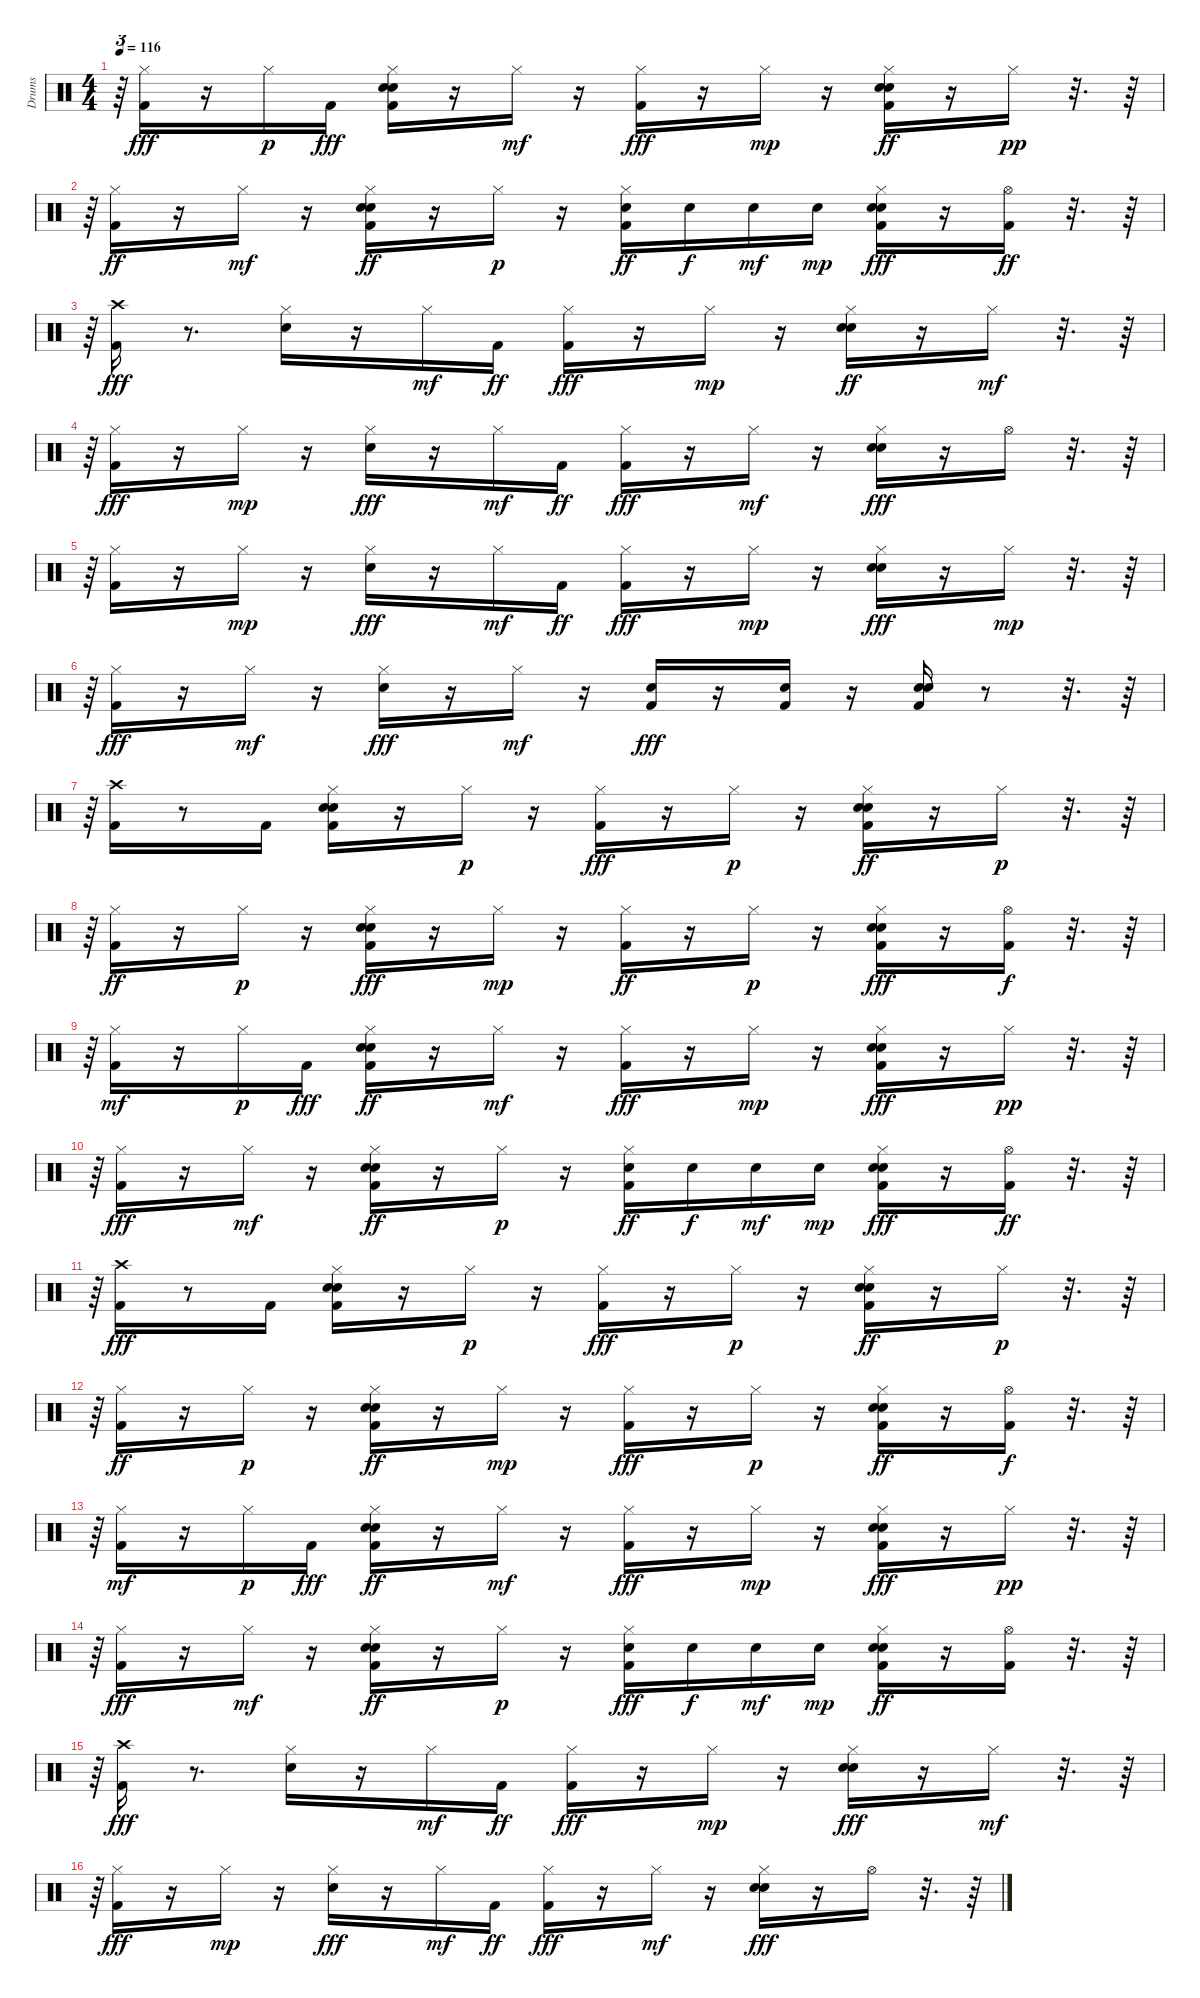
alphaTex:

\track ("Drums" "Drums") {instrument percussion}
\staff {score}
\articulation defaults
\ts (4 4)
\tempo 116
\clef neutral
\ks c
r.64{tu (3 2) dy f} ("Hi-Hat (closed)" "Kick (hit) 2").16{dy fff} r.16 "Hi-Hat (closed)".16{dy p} "Kick (hit) 2".16{dy fff} ("Hi-Hat (closed)" "Snare (hit) 2" "Kick (hit) 2" "Hand Clap (hit)").16 r.16 "Hi-Hat (closed)".16{dy mf} r.16 ("Hi-Hat (closed)" "Kick (hit) 2").16{dy fff} r.16 "Hi-Hat (closed)".16{dy mp} r.16 ("Snare (hit) 2" "Kick (hit) 2" "Hand Clap (hit)" "Hi-Hat (closed)").16{dy ff} r.16 "Hi-Hat (closed)".16{dy pp} r.32{d} r.64 |
r.64{tu (3 2)} ("Kick (hit) 2" "Hi-Hat (closed)").16{dy ff} r.16 "Hi-Hat (closed)".16{dy mf} r.16 ("Kick (hit) 2" "Hi-Hat (closed)" "Hand Clap (hit)" "Snare (hit) 2").16{dy ff} r.16 "Hi-Hat (closed)".16{dy p} r.16 ("Snare (hit) 2" "Kick (hit) 2" "Hi-Hat (closed)").16{dy ff} "Snare (hit) 2".16{dy f} "Snare (hit) 2".16{dy mf} "Snare (hit) 2".16{dy mp} ("Snare (hit) 2" "Hi-Hat (closed)" "Hand Clap (hit)" "Kick (hit) 2").16{dy fff} r.16 ("Kick (hit) 2" "Hi-Hat (open)").16{dy ff} r.32{d} r.64 |
r.64{tu (3 2)} ("Crash high (hit)" "Kick (hit) 2").16{dy fff} r.8{d} ("Hi-Hat (closed)" "Snare (hit) 2").16 r.16 "Hi-Hat (closed)".16{dy mf} "Kick (hit) 2".16{dy ff} ("Hi-Hat (closed)" "Kick (hit) 2").16{dy fff} r.16 "Hi-Hat (closed)".16{dy mp} r.16 ("Hand Clap (hit)" "Snare (hit) 2" "Hi-Hat (closed)").16{dy ff} r.16 "Hi-Hat (closed)".16{dy mf} r.32{d} r.64 |
r.64{tu (3 2)} ("Kick (hit) 2" "Hi-Hat (closed)").16{dy fff} r.16 "Hi-Hat (closed)".16{dy mp} r.16 ("Snare (hit) 2" "Hi-Hat (closed)").16{dy fff} r.16 "Hi-Hat (closed)".16{dy mf} "Kick (hit) 2".16{dy ff} ("Hi-Hat (closed)" "Kick (hit) 2").16{dy fff} r.16 "Hi-Hat (closed)".16{dy mf} r.16 ("Snare (hit) 2" "Hi-Hat (closed)" "Hand Clap (hit)").16{dy fff} r.16 "Hi-Hat (open)".16 r.32{d} r.64 |
r.64{tu (3 2)} ("Hi-Hat (closed)" "Kick (hit) 2").16 r.16 "Hi-Hat (closed)".16{dy mp} r.16 ("Snare (hit) 2" "Hi-Hat (closed)").16{dy fff} r.16 "Hi-Hat (closed)".16{dy mf} "Kick (hit) 2".16{dy ff} ("Kick (hit) 2" "Hi-Hat (closed)").16{dy fff} r.16 "Hi-Hat (closed)".16{dy mp} r.16 ("Hi-Hat (closed)" "Hand Clap (hit)" "Snare (hit) 2").16{dy fff} r.16 "Hi-Hat (closed)".16{dy mp} r.32{d} r.64 |
r.64{tu (3 2)} ("Kick (hit) 2" "Hi-Hat (closed)").16{dy fff} r.16 "Hi-Hat (closed)".16{dy mf} r.16 ("Snare (hit) 2" "Hi-Hat (closed)").16{dy fff} r.16 "Hi-Hat (closed)".16{dy mf} r.16 ("Kick (hit) 2" "Snare (hit) 2").16{dy fff} r.16 ("Kick (hit) 2" "Snare (hit) 2").16 r.16 ("Kick (hit) 2" "Snare (hit) 2" "Hand Clap (hit)").16 r.8 r.32{d} r.64 |
r.64{tu (3 2)} ("Kick (hit) 2" "Crash high (hit)").16 r.8 "Kick (hit) 2".16 ("Hi-Hat (closed)" "Snare (hit) 2" "Hand Clap (hit)" "Kick (hit) 2").16 r.16 "Hi-Hat (closed)".16{dy p} r.16 ("Hi-Hat (closed)" "Kick (hit) 2").16{dy fff} r.16 "Hi-Hat (closed)".16{dy p} r.16 ("Hi-Hat (closed)" "Snare (hit) 2" "Kick (hit) 2" "Hand Clap (hit)").16{dy ff} r.16 "Hi-Hat (closed)".16{dy p} r.32{d} r.64 |
r.64{tu (3 2)} ("Kick (hit) 2" "Hi-Hat (closed)").16{dy ff} r.16 "Hi-Hat (closed)".16{dy p} r.16 ("Hi-Hat (closed)" "Kick (hit) 2" "Hand Clap (hit)" "Snare (hit) 2").16{dy fff} r.16 "Hi-Hat (closed)".16{dy mp} r.16 ("Kick (hit) 2" "Hi-Hat (closed)").16{dy ff} r.16 "Hi-Hat (closed)".16{dy p} r.16 ("Hand Clap (hit)" "Hi-Hat (closed)" "Kick (hit) 2" "Snare (hit) 2").16{dy fff} r.16 ("Kick (hit) 2" "Hi-Hat (open)").16{dy f} r.32{d} r.64 |
r.64{tu (3 2)} ("Kick (hit) 2" "Hi-Hat (closed)").16{dy mf} r.16 "Hi-Hat (closed)".16{dy p} "Kick (hit) 2".16{dy fff} ("Snare (hit) 2" "Kick (hit) 2" "Hand Clap (hit)" "Hi-Hat (closed)").16{dy ff} r.16 "Hi-Hat (closed)".16{dy mf} r.16 ("Hi-Hat (closed)" "Kick (hit) 2").16{dy fff} r.16 "Hi-Hat (closed)".16{dy mp} r.16 ("Hi-Hat (closed)" "Kick (hit) 2" "Hand Clap (hit)" "Snare (hit) 2").16{dy fff} r.16 "Hi-Hat (closed)".16{dy pp} r.32{d} r.64 |
r.64{tu (3 2)} ("Hi-Hat (closed)" "Kick (hit) 2").16{dy fff} r.16 "Hi-Hat (closed)".16{dy mf} r.16 ("Snare (hit) 2" "Hand Clap (hit)" "Kick (hit) 2" "Hi-Hat (closed)").16{dy ff} r.16 "Hi-Hat (closed)".16{dy p} r.16 ("Snare (hit) 2" "Kick (hit) 2" "Hi-Hat (closed)").16{dy ff} "Snare (hit) 2".16{dy f} "Snare (hit) 2".16{dy mf} "Snare (hit) 2".16{dy mp} ("Hi-Hat (closed)" "Snare (hit) 2" "Hand Clap (hit)" "Kick (hit) 2").16{dy fff} r.16 ("Hi-Hat (open)" "Kick (hit) 2").16{dy ff} r.32{d} r.64 |
r.64{tu (3 2)} ("Crash high (hit)" "Kick (hit) 2").16{dy fff} r.8 "Kick (hit) 2".16 ("Snare (hit) 2" "Hand Clap (hit)" "Hi-Hat (closed)" "Kick (hit) 2").16 r.16 "Hi-Hat (closed)".16{dy p} r.16 ("Hi-Hat (closed)" "Kick (hit) 2").16{dy fff} r.16 "Hi-Hat (closed)".16{dy p} r.16 ("Snare (hit) 2" "Kick (hit) 2" "Hi-Hat (closed)" "Hand Clap (hit)").16{dy ff} r.16 "Hi-Hat (closed)".16{dy p} r.32{d} r.64 |
r.64{tu (3 2)} ("Kick (hit) 2" "Hi-Hat (closed)").16{dy ff} r.16 "Hi-Hat (closed)".16{dy p} r.16 ("Kick (hit) 2" "Snare (hit) 2" "Hand Clap (hit)" "Hi-Hat (closed)").16{dy ff} r.16 "Hi-Hat (closed)".16{dy mp} r.16 ("Hi-Hat (closed)" "Kick (hit) 2").16{dy fff} r.16 "Hi-Hat (closed)".16{dy p} r.16 ("Kick (hit) 2" "Hi-Hat (closed)" "Hand Clap (hit)" "Snare (hit) 2").16{dy ff} r.16 ("Kick (hit) 2" "Hi-Hat (open)").16{dy f} r.32{d} r.64 |
r.64{tu (3 2)} ("Kick (hit) 2" "Hi-Hat (closed)").16{dy mf} r.16 "Hi-Hat (closed)".16{dy p} "Kick (hit) 2".16{dy fff} ("Snare (hit) 2" "Kick (hit) 2" "Hand Clap (hit)" "Hi-Hat (closed)").16{dy ff} r.16 "Hi-Hat (closed)".16{dy mf} r.16 ("Hi-Hat (closed)" "Kick (hit) 2").16{dy fff} r.16 "Hi-Hat (closed)".16{dy mp} r.16 ("Snare (hit) 2" "Hi-Hat (closed)" "Hand Clap (hit)" "Kick (hit) 2").16{dy fff} r.16 "Hi-Hat (closed)".16{dy pp} r.32{d} r.64 |
r.64{tu (3 2)} ("Hi-Hat (closed)" "Kick (hit) 2").16{dy fff} r.16 "Hi-Hat (closed)".16{dy mf} r.16 ("Hand Clap (hit)" "Snare (hit) 2" "Kick (hit) 2" "Hi-Hat (closed)").16{dy ff} r.16 "Hi-Hat (closed)".16{dy p} r.16 ("Hi-Hat (closed)" "Kick (hit) 2" "Snare (hit) 2").16{dy fff} "Snare (hit) 2".16{dy f} "Snare (hit) 2".16{dy mf} "Snare (hit) 2".16{dy mp} ("Hi-Hat (closed)" "Kick (hit) 2" "Snare (hit) 2" "Hand Clap (hit)").16{dy ff} r.16 ("Kick (hit) 2" "Hi-Hat (open)").16 r.32{d} r.64 |
r.64{tu (3 2)} ("Kick (hit) 2" "Crash high (hit)").16{dy fff} r.8{d} ("Snare (hit) 2" "Hi-Hat (closed)").16 r.16 "Hi-Hat (closed)".16{dy mf} "Kick (hit) 2".16{dy ff} ("Kick (hit) 2" "Hi-Hat (closed)").16{dy fff} r.16 "Hi-Hat (closed)".16{dy mp} r.16 ("Hi-Hat (closed)" "Snare (hit) 2" "Hand Clap (hit)").16{dy fff} r.16 "Hi-Hat (closed)".16{dy mf} r.32{d} r.64 |
r.64{tu (3 2)} ("Kick (hit) 2" "Hi-Hat (closed)").16{dy fff} r.16 "Hi-Hat (closed)".16{dy mp} r.16 ("Snare (hit) 2" "Hi-Hat (closed)").16{dy fff} r.16 "Hi-Hat (closed)".16{dy mf} "Kick (hit) 2".16{dy ff} ("Hi-Hat (closed)" "Kick (hit) 2").16{dy fff} r.16 "Hi-Hat (closed)".16{dy mf} r.16 ("Hand Clap (hit)" "Snare (hit) 2" "Hi-Hat (closed)").16{dy fff} r.16 "Hi-Hat (open)".16 r.32{d} r.64
